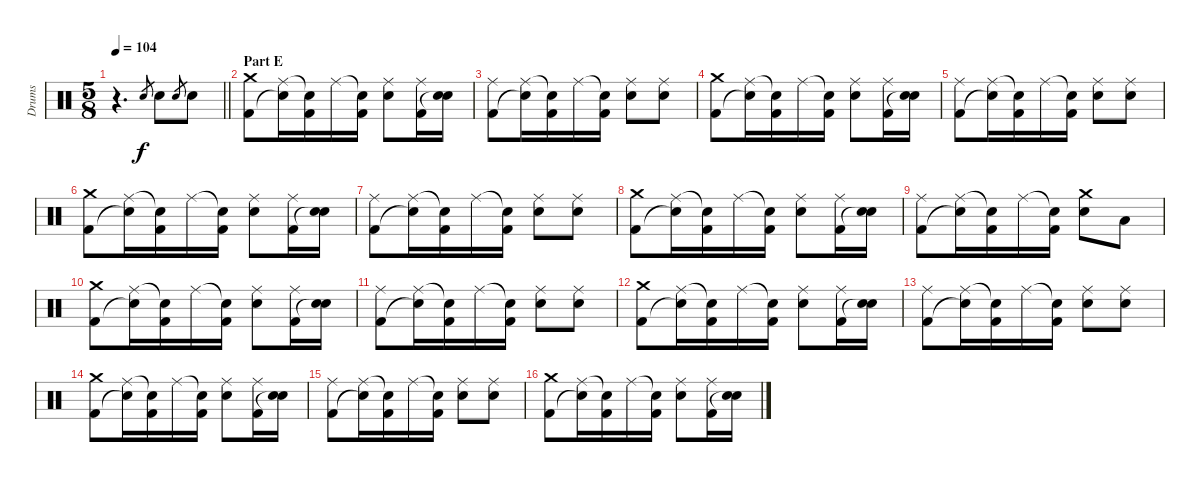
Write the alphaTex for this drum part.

\track ("Drums" "Drums") {instrument percussion}
\staff {score}
\articulation defaults
\ts (5 8)
\tempo 104
\clef neutral
\barLineRight lightlight
\ks c
r.4{d dy f} "Electric Snare (hit)".8{gr} "Electric Snare (hit)".8 "Electric Snare (hit)".8{gr} "Electric Snare (hit)".8 |
\section ("" "Part E")
("Crash medium (hit)" "Kick (hit) 2").8 ("Ride (middle)" "Snare (hit)"{t}).16 ("Snare (hit)"{t} "Kick (hit) 2").16 "Ride (middle)".16 ("Snare (hit)"{t} "Kick (hit) 2").16 ("Ride (middle)" "Electric Snare (hit)").8 ("Ride (middle)" "Kick (hit) 2").16 ("Electric Snare (hit)" "Snare (hit)"{t}).16 |
("Ride (middle)" "Kick (hit) 2").8 ("Ride (middle)" "Snare (hit)"{t}).16 ("Snare (hit)"{t} "Kick (hit) 2").16 "Ride (middle)".16 ("Snare (hit)"{t} "Kick (hit) 2").16 ("Ride (middle)" "Electric Snare (hit)").8 ("Ride (middle)" "Electric Snare (hit)").8 |
("Crash medium (hit)" "Kick (hit) 2").8 ("Ride (middle)" "Snare (hit)"{t}).16 ("Snare (hit)"{t} "Kick (hit) 2").16 "Ride (middle)".16 ("Snare (hit)"{t} "Kick (hit) 2").16 ("Ride (middle)" "Electric Snare (hit)").8 ("Ride (middle)" "Kick (hit) 2").16 ("Electric Snare (hit)" "Snare (hit)"{t}).16 |
("Ride (middle)" "Kick (hit) 2").8 ("Ride (middle)" "Snare (hit)"{t}).16 ("Snare (hit)"{t} "Kick (hit) 2").16 "Ride (middle)".16 ("Snare (hit)"{t} "Kick (hit) 2").16 ("Ride (middle)" "Electric Snare (hit)").8 ("Ride (middle)" "Electric Snare (hit)").8 |
("Crash medium (hit)" "Kick (hit) 2").8 ("Ride (middle)" "Snare (hit)"{t}).16 ("Snare (hit)"{t} "Kick (hit) 2").16 "Ride (middle)".16 ("Snare (hit)"{t} "Kick (hit) 2").16 ("Ride (middle)" "Electric Snare (hit)").8 ("Ride (middle)" "Kick (hit) 2").16 ("Electric Snare (hit)" "Snare (hit)"{t}).16 |
("Ride (middle)" "Kick (hit) 2").8 ("Ride (middle)" "Snare (hit)"{t}).16 ("Snare (hit)"{t} "Kick (hit) 2").16 "Ride (middle)".16 ("Snare (hit)"{t} "Kick (hit) 2").16 ("Ride (middle)" "Electric Snare (hit)").8 ("Ride (middle)" "Electric Snare (hit)").8 |
("Crash medium (hit)" "Kick (hit) 2").8 ("Ride (middle)" "Snare (hit)"{t}).16 ("Snare (hit)"{t} "Kick (hit) 2").16 "Ride (middle)".16 ("Snare (hit)"{t} "Kick (hit) 2").16 ("Ride (middle)" "Electric Snare (hit)").8 ("Ride (middle)" "Kick (hit) 2").16 ("Electric Snare (hit)" "Snare (hit)"{t}).16 |
("Ride (middle)" "Kick (hit) 2").8 ("Ride (middle)" "Snare (hit)"{t}).16 ("Snare (hit)"{t} "Kick (hit) 2").16 "Ride (middle)".16 ("Snare (hit)"{t} "Kick (hit) 2").16 ("Crash medium (hit)" "Electric Snare (hit)").8 "Low Floor Tom (hit)".8 |
("Crash medium (hit)" "Kick (hit) 2").8 ("Ride (middle)" "Snare (hit)"{t}).16 ("Snare (hit)"{t} "Kick (hit) 2").16 "Ride (middle)".16 ("Snare (hit)"{t} "Kick (hit) 2").16 ("Ride (middle)" "Electric Snare (hit)").8 ("Ride (middle)" "Kick (hit) 2").16 ("Electric Snare (hit)" "Snare (hit)"{t}).16 |
("Ride (middle)" "Kick (hit) 2").8 ("Ride (middle)" "Snare (hit)"{t}).16 ("Snare (hit)"{t} "Kick (hit) 2").16 "Ride (middle)".16 ("Snare (hit)"{t} "Kick (hit) 2").16 ("Ride (middle)" "Electric Snare (hit)").8 ("Ride (middle)" "Electric Snare (hit)").8 |
("Crash medium (hit)" "Kick (hit) 2").8 ("Ride (middle)" "Snare (hit)"{t}).16 ("Snare (hit)"{t} "Kick (hit) 2").16 "Ride (middle)".16 ("Snare (hit)"{t} "Kick (hit) 2").16 ("Ride (middle)" "Electric Snare (hit)").8 ("Ride (middle)" "Kick (hit) 2").16 ("Electric Snare (hit)" "Snare (hit)"{t}).16 |
("Ride (middle)" "Kick (hit) 2").8 ("Ride (middle)" "Snare (hit)"{t}).16 ("Snare (hit)"{t} "Kick (hit) 2").16 "Ride (middle)".16 ("Snare (hit)"{t} "Kick (hit) 2").16 ("Ride (middle)" "Electric Snare (hit)").8 ("Ride (middle)" "Electric Snare (hit)").8 |
("Crash medium (hit)" "Kick (hit) 2").8 ("Ride (middle)" "Snare (hit)"{t}).16 ("Snare (hit)"{t} "Kick (hit) 2").16 "Ride (middle)".16 ("Snare (hit)"{t} "Kick (hit) 2").16 ("Ride (middle)" "Electric Snare (hit)").8 ("Ride (middle)" "Kick (hit) 2").16 ("Electric Snare (hit)" "Snare (hit)"{t}).16 |
("Ride (middle)" "Kick (hit) 2").8 ("Ride (middle)" "Snare (hit)"{t}).16 ("Snare (hit)"{t} "Kick (hit) 2").16 "Ride (middle)".16 ("Snare (hit)"{t} "Kick (hit) 2").16 ("Ride (middle)" "Electric Snare (hit)").8 ("Ride (middle)" "Electric Snare (hit)").8 |
("Crash medium (hit)" "Kick (hit) 2").8 ("Ride (middle)" "Snare (hit)"{t}).16 ("Snare (hit)"{t} "Kick (hit) 2").16 "Ride (middle)".16 ("Snare (hit)"{t} "Kick (hit) 2").16 ("Ride (middle)" "Electric Snare (hit)").8 ("Ride (middle)" "Kick (hit) 2").16 ("Electric Snare (hit)" "Snare (hit)"{t}).16
